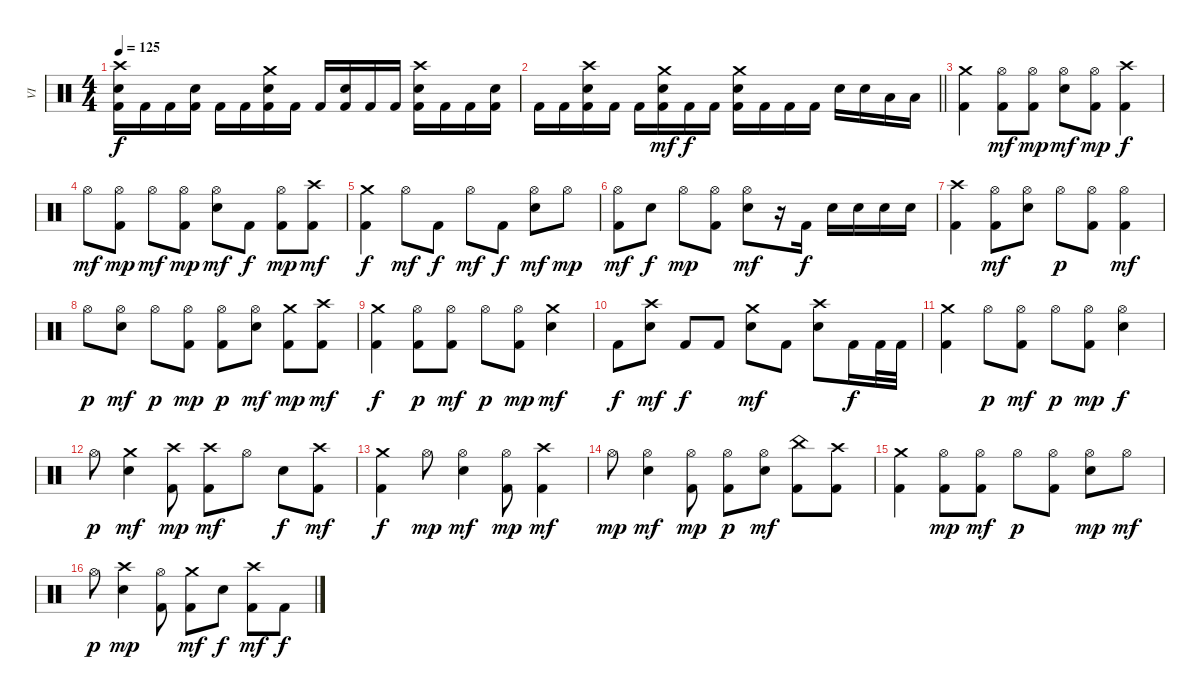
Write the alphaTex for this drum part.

\track ("VI" "VI") {instrument percussion}
\staff {score}
\articulation defaults
\ts (4 4)
\tempo 125
\clef neutral
\ks c
("Crash high (hit)" "Electric Snare (hit)" "Kick (hit) 2").16{dy f} "Kick (hit) 2".16 "Kick (hit) 2".16 ("Electric Snare (hit)" "Kick (hit) 2").16 "Kick (hit) 2".16 "Kick (hit) 2".16 ("Crash medium (hit)" "Electric Snare (hit)" "Kick (hit) 2").16 "Kick (hit) 2".16 "Kick (hit) 2".16 ("Electric Snare (hit)" "Kick (hit) 2").16 "Kick (hit) 2".16 "Kick (hit) 2".16 ("Crash high (hit)" "Electric Snare (hit)" "Kick (hit) 2").16 "Kick (hit) 2".16 "Kick (hit) 2".16 ("Electric Snare (hit)" "Kick (hit) 2").16 |
\barLineRight lightlight "Kick (hit) 2".16 "Kick (hit) 2".16
("Crash high (hit)" "Electric Snare (hit)" "Kick (hit) 2").16 "Kick (hit) 2".16 "Kick (hit) 2".16 ("Crash medium (hit)" "Electric Snare (hit)" "Kick (hit) 2").16{dy mf} "Kick (hit) 2".16{dy f} "Kick (hit) 2".16 ("Crash medium (hit)" "Electric Snare (hit)" "Kick (hit) 2").16 "Kick (hit) 2".16 "Kick (hit) 2".16 "Kick (hit) 2".16 "Electric Snare (hit)".16 "Electric Snare (hit)".16 "Low Tom (hit)".16 "Low Tom (hit)".16 |
\section ("" "")
("Crash medium (hit)" "Kick (hit) 2").4 ("Hi-Hat (open)" "Kick (hit) 2").8{dy mf} ("Hi-Hat (open)" "Kick (hit) 2").8{dy mp} ("Hi-Hat (open)" "Electric Snare (hit)").8{dy mf} ("Hi-Hat (open)" "Kick (hit) 2").8{dy mp} ("Crash high (hit)" "Kick (hit) 2").4{dy f} |
"Hi-Hat (open)".8{dy mf} ("Hi-Hat (open)" "Kick (hit) 2").8{dy mp} "Hi-Hat (open)".8{dy mf} ("Hi-Hat (open)" "Kick (hit) 2").8{dy mp} ("Hi-Hat (open)" "Electric Snare (hit)").8{dy mf} "Kick (hit) 2".8{dy f} ("Hi-Hat (open)" "Kick (hit) 2").8{dy mp} ("Crash high (hit)" "Kick (hit) 2").8{dy mf} |
("Crash medium (hit)" "Kick (hit) 2").4{dy f} "Hi-Hat (open)".8{dy mf} "Kick (hit) 2".8{dy f} "Hi-Hat (open)".8{dy mf} "Kick (hit) 2".8{dy f} ("Hi-Hat (open)" "Electric Snare (hit)").8{dy mf} "Hi-Hat (open)".8{dy mp} |
("Hi-Hat (open)" "Kick (hit) 2").8{dy mf} "Electric Snare (hit)".8{dy f} "Hi-Hat (open)".8{dy mp} ("Hi-Hat (open)" "Kick (hit) 2").8 ("Hi-Hat (open)" "Electric Snare (hit)").8{dy mf} r.16 "Kick (hit) 2".16{dy f} "Electric Snare (hit)".16 "Electric Snare (hit)".16 "Electric Snare (hit)".16 "Electric Snare (hit)".16 |
("Crash high (hit)" "Kick (hit) 2").4 ("Hi-Hat (open)" "Kick (hit) 2").8{dy mf} ("Hi-Hat (open)" "Electric Snare (hit)").8 "Hi-Hat (open)".8{dy p} ("Hi-Hat (open)" "Kick (hit) 2").8 ("Hi-Hat (open)" "Kick (hit) 2").4{dy mf} |
"Hi-Hat (open)".8{dy p} ("Hi-Hat (open)" "Electric Snare (hit)").8{dy mf} "Hi-Hat (open)".8{dy p} ("Hi-Hat (open)" "Kick (hit) 2").8{dy mp} ("Hi-Hat (open)" "Kick (hit) 2").8{dy p} ("Hi-Hat (open)" "Electric Snare (hit)").8{dy mf} ("Crash medium (hit)" "Kick (hit) 2").8{dy mp} ("Crash high (hit)" "Kick (hit) 2").8{dy mf} |
("Crash medium (hit)" "Kick (hit) 2").4{dy f} ("Hi-Hat (open)" "Kick (hit) 2").8{dy p} ("Hi-Hat (open)" "Kick (hit) 2").8{dy mf} "Hi-Hat (open)".8{dy p} ("Hi-Hat (open)" "Kick (hit) 2").8{dy mp} ("Crash medium (hit)" "Electric Snare (hit)").4{dy mf} |
"Kick (hit) 2".8{dy f} ("Crash high (hit)" "Electric Snare (hit)").8{dy mf} "Kick (hit) 2".8{dy f} "Kick (hit) 2".8 ("Crash medium (hit)" "Electric Snare (hit)").8{dy mf} "Kick (hit) 2".8 ("Crash high (hit)" "Electric Snare (hit)").8 "Kick (hit) 2".16{dy f} "Kick (hit) 2".32 "Kick (hit) 2".32 |
("Crash medium (hit)" "Kick (hit) 2").4 "Hi-Hat (open)".8{dy p} ("Hi-Hat (open)" "Kick (hit) 2").8{dy mf} "Hi-Hat (open)".8{dy p} ("Hi-Hat (open)" "Kick (hit) 2").8{dy mp} ("Hi-Hat (open)" "Electric Snare (hit)").4{dy f} |
"Hi-Hat (open)".8{dy p} ("Crash medium (hit)" "Electric Snare (hit)").4{dy mf} ("Crash high (hit)" "Kick (hit) 2").8{dy mp} ("Crash high (hit)" "Kick (hit) 2").8{dy mf} "Hi-Hat (open)".8 "Electric Snare (hit)".8{dy f} ("Crash high (hit)" "Kick (hit) 2").8{dy mf} |
("Crash medium (hit)" "Kick (hit) 2").4{dy f} "Hi-Hat (open)".8{dy mp} ("Hi-Hat (open)" "Electric Snare (hit)").4{dy mf} ("Hi-Hat (open)" "Kick (hit) 2").8{dy mp} ("Crash high (hit)" "Kick (hit) 2").4{dy mf} |
"Hi-Hat (open)".8{dy mp} ("Hi-Hat (open)" "Electric Snare (hit)").4{dy mf} ("Hi-Hat (open)" "Kick (hit) 2").8{dy mp} ("Hi-Hat (open)" "Kick (hit) 2").8{dy p} ("Hi-Hat (open)" "Electric Snare (hit)").8{dy mf} ("China (hit)" "Kick (hit) 2").8 ("Crash high (hit)" "Kick (hit) 2").8 |
("Crash medium (hit)" "Kick (hit) 2").4 ("Hi-Hat (open)" "Kick (hit) 2").8{dy mp} ("Hi-Hat (open)" "Kick (hit) 2").8{dy mf} "Hi-Hat (open)".8{dy p} ("Hi-Hat (open)" "Kick (hit) 2").8 ("Hi-Hat (open)" "Electric Snare (hit)").8{dy mp} "Hi-Hat (open)".8{dy mf} |
"Hi-Hat (open)".8{dy p} ("Crash high (hit)" "Electric Snare (hit)").4{dy mp} ("Hi-Hat (open)" "Kick (hit) 2").8 ("Crash medium (hit)" "Kick (hit) 2").8{dy mf} "Electric Snare (hit)".8{dy f} ("Crash high (hit)" "Kick (hit) 2").8{dy mf} "Kick (hit) 2".8{dy f}
